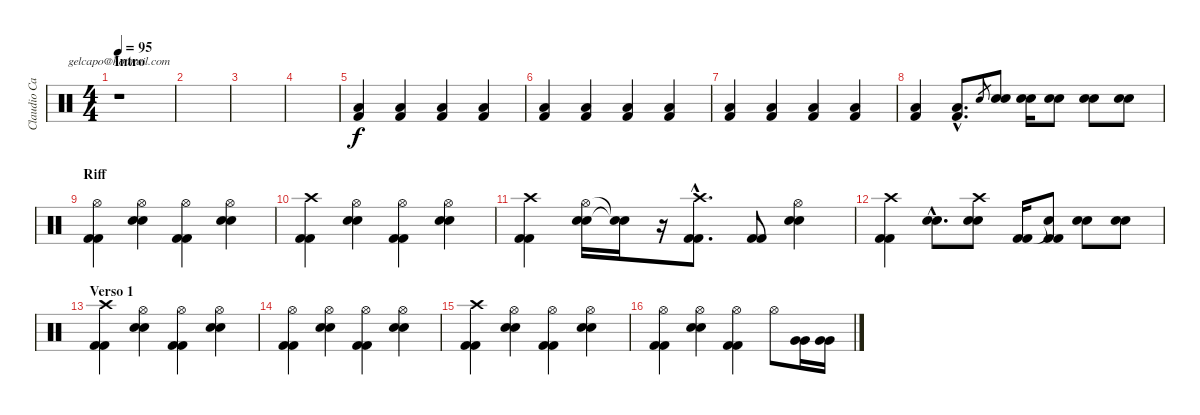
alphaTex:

\track ("Claudio Cardaci (bateria)" "Claudio Ca") {instrument percussion}
\staff {score}
\articulation defaults
\chord ("gelcapo@hotmail.com") {firstfret 0}
\ts (4 4)
\section ("" "Intro")
\tempo 95
\clef neutral
\ks c
r.1{ch "gelcapo@hotmail.com" dy f} |
|
|
|
("Kick (hit) 2" "Low Tom (hit)").4 ("Kick (hit) 2" "Low Tom (hit)").4 ("Kick (hit) 2" "Low Tom (hit)").4 ("Kick (hit) 2" "Low Tom (hit)").4 |
("Kick (hit) 2" "Low Tom (hit)").4 ("Kick (hit) 2" "Low Tom (hit)").4 ("Kick (hit) 2" "Low Tom (hit)").4 ("Kick (hit) 2" "Low Tom (hit)").4 |
("Kick (hit) 2" "Low Tom (hit)").4 ("Kick (hit) 2" "Low Tom (hit)").4 ("Kick (hit) 2" "Low Tom (hit)").4 ("Kick (hit) 2" "Low Tom (hit)").4 |
("Kick (hit) 2" "Low Tom (hit)").4 ("Kick (hit) 2"{hac} "Low Tom (hit)"{hac}).8{d} "Electric Snare (hit)".8{gr} ("Electric Snare (hit)" "Snare (hit) 2").8 ("Electric Snare (hit)" "Snare (hit) 2").16 ("Electric Snare (hit)" "Snare (hit) 2").8 ("Electric Snare (hit)" "Snare (hit) 2").8 ("Electric Snare (hit)" "Snare (hit) 2").8 |
\section ("" "Riff")
("Hi-Hat (open)" "Kick (hit) 2" "Kick (hit) 2").4 ("Hi-Hat (open)" "Snare (hit) 2" "Snare (hit) 2").4 ("Hi-Hat (open)" "Kick (hit) 2" "Kick (hit) 2").4 ("Hi-Hat (open)" "Snare (hit) 2" "Snare (hit) 2").4 |
("Crash high (hit)" "Kick (hit) 2" "Kick (hit) 2").4 ("Hi-Hat (open)" "Snare (hit) 2" "Snare (hit) 2").4 ("Hi-Hat (open)" "Kick (hit) 2" "Kick (hit) 2").4 ("Hi-Hat (open)" "Snare (hit) 2" "Snare (hit) 2").4 |
("Crash high (hit)" "Kick (hit) 2" "Kick (hit) 2").4 ("Hi-Hat (open)" "Snare (hit) 2" "Snare (hit) 2").16 ("Snare (hit)"{t} "Snare (hit)"{t}).16 r.16 ("Crash high (hit)"{hac} "Kick (hit) 2"{hac} "Kick (hit) 2"{hac}).8{d} ("Kick (hit) 2" "Kick (hit) 2").8 ("Hi-Hat (open)" "Snare (hit) 2" "Snare (hit) 2").4 |
("Crash high (hit)" "Kick (hit) 2" "Kick (hit) 2").4 ("Snare (hit) 2"{hac} "Snare (hit) 2"{hac}).8{d} ("Crash high (hit)" "Electric Snare (hit)" "Snare (hit) 2").8 ("Kick (hit) 2" "Kick (hit) 2").16 ("Snare (hit)"{t} "Kick (hit) 2" "Kick (hit) 2").8 ("Electric Snare (hit)" "Snare (hit) 2").8 ("Electric Snare (hit)" "Snare (hit) 2").8 |
\section ("" "Verso 1")
("Crash high (hit)" "Kick (hit) 2" "Kick (hit) 2").4 ("Hi-Hat (open)" "Snare (hit) 2" "Snare (hit) 2").4 ("Hi-Hat (open)" "Kick (hit) 2" "Kick (hit) 2").4 ("Hi-Hat (open)" "Snare (hit) 2" "Snare (hit) 2").4 |
("Hi-Hat (open)" "Kick (hit) 2" "Kick (hit) 2").4 ("Hi-Hat (open)" "Snare (hit) 2" "Snare (hit) 2").4 ("Hi-Hat (open)" "Kick (hit) 2" "Kick (hit) 2").4 ("Hi-Hat (open)" "Snare (hit) 2" "Snare (hit) 2").4 |
("Crash high (hit)" "Kick (hit) 2" "Kick (hit) 2").4 ("Hi-Hat (open)" "Snare (hit) 2" "Snare (hit) 2").4 ("Hi-Hat (open)" "Kick (hit) 2" "Kick (hit) 2").4 ("Hi-Hat (open)" "Snare (hit) 2" "Snare (hit) 2").4 |
("Hi-Hat (open)" "Kick (hit) 2" "Kick (hit) 2").4 ("Hi-Hat (open)" "Snare (hit) 2" "Snare (hit) 2").4 ("Hi-Hat (open)" "Kick (hit) 2" "Kick (hit) 2").4 "Hi-Hat (open)".8 ("Very Low Tom (hit)" "Very Low Tom (hit)").16 ("Very Low Tom (hit)" "Very Low Tom (hit)").16
